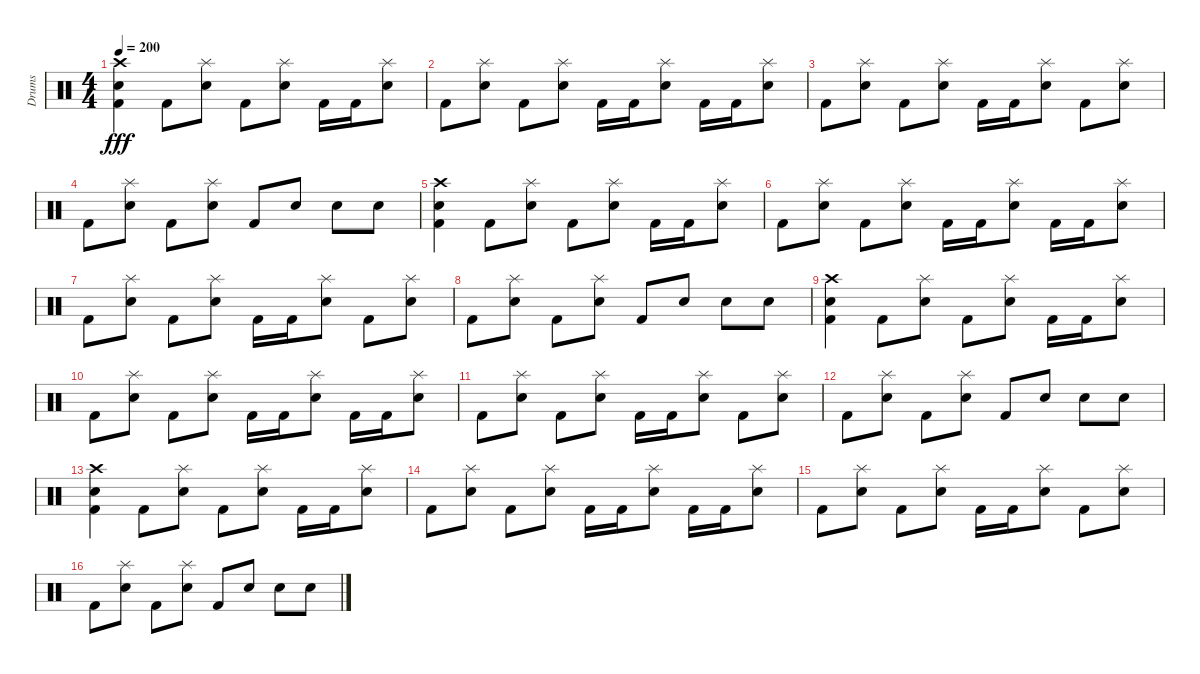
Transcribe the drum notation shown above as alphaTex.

\track ("Drums" "Drums") {instrument percussion}
\staff {score}
\articulation defaults
\ts (4 4)
\tempo 200
\clef neutral
\ks c
("Crash high (hit)" "Snare (hit) 2" "Kick (hit) 2").4{dy fff} "Kick (hit) 2".8 ("Splash (hit)" "Snare (hit) 2").8 "Kick (hit) 2".8 ("Splash (hit)" "Snare (hit) 2").8 "Kick (hit) 2".16 "Kick (hit) 2".16 ("Splash (hit)" "Snare (hit) 2").8 |
"Kick (hit) 2".8 ("Splash (hit)" "Snare (hit) 2").8 "Kick (hit) 2".8 ("Splash (hit)" "Snare (hit) 2").8 "Kick (hit) 2".16 "Kick (hit) 2".16 ("Splash (hit)" "Snare (hit) 2").8 "Kick (hit) 2".16 "Kick (hit) 2".16 ("Splash (hit)" "Snare (hit) 2").8 |
"Kick (hit) 2".8 ("Splash (hit)" "Snare (hit) 2").8 "Kick (hit) 2".8 ("Splash (hit)" "Snare (hit) 2").8 "Kick (hit) 2".16 "Kick (hit) 2".16 ("Splash (hit)" "Snare (hit) 2").8 "Kick (hit) 2".8 ("Splash (hit)" "Snare (hit) 2").8 |
"Kick (hit) 2".8 ("Splash (hit)" "Snare (hit) 2").8 "Kick (hit) 2".8 ("Splash (hit)" "Snare (hit) 2").8 "Kick (hit) 2".8 "Snare (hit) 2".8 "Snare (hit) 2".8 "Snare (hit) 2".8 |
("Crash high (hit)" "Snare (hit) 2" "Kick (hit) 2").4 "Kick (hit) 2".8 ("Splash (hit)" "Snare (hit) 2").8 "Kick (hit) 2".8 ("Splash (hit)" "Snare (hit) 2").8 "Kick (hit) 2".16 "Kick (hit) 2".16 ("Splash (hit)" "Snare (hit) 2").8 |
"Kick (hit) 2".8 ("Splash (hit)" "Snare (hit) 2").8 "Kick (hit) 2".8 ("Splash (hit)" "Snare (hit) 2").8 "Kick (hit) 2".16 "Kick (hit) 2".16 ("Splash (hit)" "Snare (hit) 2").8 "Kick (hit) 2".16 "Kick (hit) 2".16 ("Splash (hit)" "Snare (hit) 2").8 |
"Kick (hit) 2".8 ("Splash (hit)" "Snare (hit) 2").8 "Kick (hit) 2".8 ("Splash (hit)" "Snare (hit) 2").8 "Kick (hit) 2".16 "Kick (hit) 2".16 ("Splash (hit)" "Snare (hit) 2").8 "Kick (hit) 2".8 ("Splash (hit)" "Snare (hit) 2").8 |
"Kick (hit) 2".8 ("Splash (hit)" "Snare (hit) 2").8 "Kick (hit) 2".8 ("Splash (hit)" "Snare (hit) 2").8 "Kick (hit) 2".8 "Snare (hit) 2".8 "Snare (hit) 2".8 "Snare (hit) 2".8 |
("Crash high (hit)" "Snare (hit) 2" "Kick (hit) 2").4 "Kick (hit) 2".8 ("Splash (hit)" "Snare (hit) 2").8 "Kick (hit) 2".8 ("Splash (hit)" "Snare (hit) 2").8 "Kick (hit) 2".16 "Kick (hit) 2".16 ("Splash (hit)" "Snare (hit) 2").8 |
"Kick (hit) 2".8 ("Splash (hit)" "Snare (hit) 2").8 "Kick (hit) 2".8 ("Splash (hit)" "Snare (hit) 2").8 "Kick (hit) 2".16 "Kick (hit) 2".16 ("Splash (hit)" "Snare (hit) 2").8 "Kick (hit) 2".16 "Kick (hit) 2".16 ("Splash (hit)" "Snare (hit) 2").8 |
"Kick (hit) 2".8 ("Splash (hit)" "Snare (hit) 2").8 "Kick (hit) 2".8 ("Splash (hit)" "Snare (hit) 2").8 "Kick (hit) 2".16 "Kick (hit) 2".16 ("Splash (hit)" "Snare (hit) 2").8 "Kick (hit) 2".8 ("Splash (hit)" "Snare (hit) 2").8 |
"Kick (hit) 2".8 ("Splash (hit)" "Snare (hit) 2").8 "Kick (hit) 2".8 ("Splash (hit)" "Snare (hit) 2").8 "Kick (hit) 2".8 "Snare (hit) 2".8 "Snare (hit) 2".8 "Snare (hit) 2".8 |
("Crash high (hit)" "Snare (hit) 2" "Kick (hit) 2").4 "Kick (hit) 2".8 ("Splash (hit)" "Snare (hit) 2").8 "Kick (hit) 2".8 ("Splash (hit)" "Snare (hit) 2").8 "Kick (hit) 2".16 "Kick (hit) 2".16 ("Splash (hit)" "Snare (hit) 2").8 |
"Kick (hit) 2".8 ("Splash (hit)" "Snare (hit) 2").8 "Kick (hit) 2".8 ("Splash (hit)" "Snare (hit) 2").8 "Kick (hit) 2".16 "Kick (hit) 2".16 ("Splash (hit)" "Snare (hit) 2").8 "Kick (hit) 2".16 "Kick (hit) 2".16 ("Splash (hit)" "Snare (hit) 2").8 |
"Kick (hit) 2".8 ("Splash (hit)" "Snare (hit) 2").8 "Kick (hit) 2".8 ("Splash (hit)" "Snare (hit) 2").8 "Kick (hit) 2".16 "Kick (hit) 2".16 ("Splash (hit)" "Snare (hit) 2").8 "Kick (hit) 2".8 ("Splash (hit)" "Snare (hit) 2").8 |
"Kick (hit) 2".8 ("Splash (hit)" "Snare (hit) 2").8 "Kick (hit) 2".8 ("Splash (hit)" "Snare (hit) 2").8 "Kick (hit) 2".8 "Snare (hit) 2".8 "Snare (hit) 2".8 "Snare (hit) 2".8
